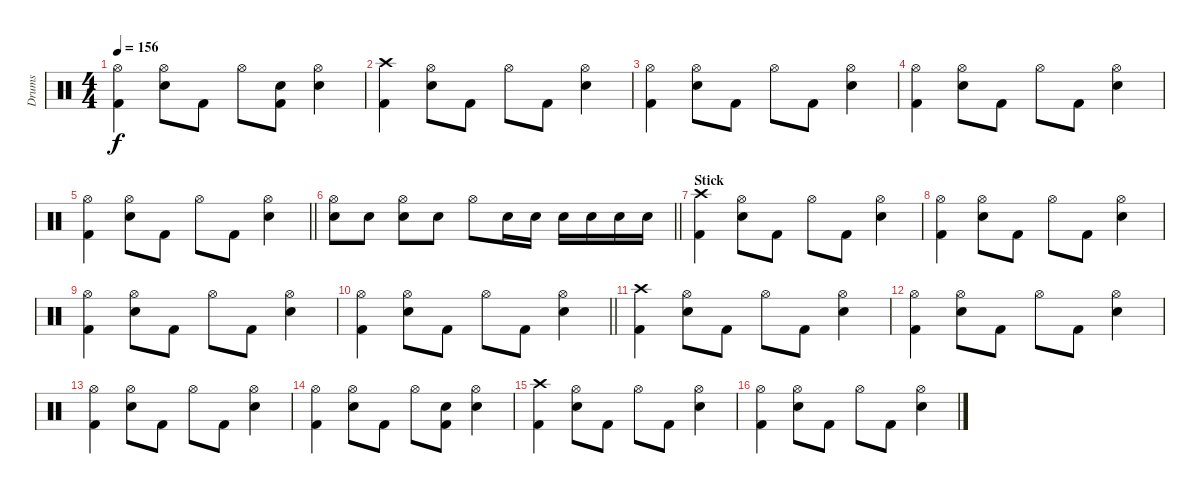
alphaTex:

\track ("Drums" "Drums") {instrument percussion}
\staff {score}
\articulation defaults
\ts (4 4)
\tempo 156
\clef neutral
\ks c
("Hi-Hat (open)" "Kick (hit) 2").4{dy f} ("Hi-Hat (open)" "Electric Snare (hit)").8 "Kick (hit) 2".8 "Hi-Hat (open)".8 ("Electric Snare (hit)" "Kick (hit) 2").8 ("Hi-Hat (open)" "Electric Snare (hit)").4 |
("Crash high (hit)" "Kick (hit) 2").4 ("Hi-Hat (open)" "Electric Snare (hit)").8 "Kick (hit) 2".8 "Hi-Hat (open)".8 "Kick (hit) 2".8 ("Hi-Hat (open)" "Electric Snare (hit)").4 |
("Hi-Hat (open)" "Kick (hit) 2").4 ("Hi-Hat (open)" "Electric Snare (hit)").8 "Kick (hit) 2".8 "Hi-Hat (open)".8 "Kick (hit) 2".8 ("Hi-Hat (open)" "Electric Snare (hit)").4 |
("Hi-Hat (open)" "Kick (hit) 2").4 ("Hi-Hat (open)" "Electric Snare (hit)").8 "Kick (hit) 2".8 "Hi-Hat (open)".8 "Kick (hit) 2".8 ("Hi-Hat (open)" "Electric Snare (hit)").4 |
\barLineRight lightlight
("Hi-Hat (open)" "Kick (hit) 2").4 ("Hi-Hat (open)" "Electric Snare (hit)").8 "Kick (hit) 2".8 "Hi-Hat (open)".8 "Kick (hit) 2".8 ("Hi-Hat (open)" "Electric Snare (hit)").4 |
\barLineRight lightlight
("Hi-Hat (open)" "Electric Snare (hit)").8 "Electric Snare (hit)".8 ("Hi-Hat (open)" "Electric Snare (hit)").8 "Electric Snare (hit)".8 "Hi-Hat (open)".8 "Electric Snare (hit)".16 "Electric Snare (hit)".16 "Electric Snare (hit)".16 "Electric Snare (hit)".16 "Electric Snare (hit)".16 "Electric Snare (hit)".16 |
\section ("" "Stick")
("Crash high (hit)" "Kick (hit) 2").4 ("Hi-Hat (open)" "Electric Snare (hit)").8 "Kick (hit) 2".8 "Hi-Hat (open)".8 "Kick (hit) 2".8 ("Hi-Hat (open)" "Electric Snare (hit)").4 |
("Hi-Hat (open)" "Kick (hit) 2").4 ("Hi-Hat (open)" "Electric Snare (hit)").8 "Kick (hit) 2".8 "Hi-Hat (open)".8 "Kick (hit) 2".8 ("Hi-Hat (open)" "Electric Snare (hit)").4 |
("Hi-Hat (open)" "Kick (hit) 2").4 ("Hi-Hat (open)" "Electric Snare (hit)").8 "Kick (hit) 2".8 "Hi-Hat (open)".8 "Kick (hit) 2".8 ("Hi-Hat (open)" "Electric Snare (hit)").4 |
\barLineRight lightlight
("Hi-Hat (open)" "Kick (hit) 2").4 ("Hi-Hat (open)" "Electric Snare (hit)").8 "Kick (hit) 2".8 "Hi-Hat (open)".8 "Kick (hit) 2".8 ("Hi-Hat (open)" "Electric Snare (hit)").4 |
("Crash high (hit)" "Kick (hit) 2").4 ("Hi-Hat (open)" "Electric Snare (hit)").8 "Kick (hit) 2".8 "Hi-Hat (open)".8 "Kick (hit) 2".8 ("Hi-Hat (open)" "Electric Snare (hit)").4 |
("Hi-Hat (open)" "Kick (hit) 2").4 ("Hi-Hat (open)" "Electric Snare (hit)").8 "Kick (hit) 2".8 "Hi-Hat (open)".8 "Kick (hit) 2".8 ("Hi-Hat (open)" "Electric Snare (hit)").4 |
("Hi-Hat (open)" "Kick (hit) 2").4 ("Hi-Hat (open)" "Electric Snare (hit)").8 "Kick (hit) 2".8 "Hi-Hat (open)".8 "Kick (hit) 2".8 ("Hi-Hat (open)" "Electric Snare (hit)").4 |
("Hi-Hat (open)" "Kick (hit) 2").4 ("Hi-Hat (open)" "Electric Snare (hit)").8 "Kick (hit) 2".8 "Hi-Hat (open)".8 ("Electric Snare (hit)" "Kick (hit) 2").8 ("Hi-Hat (open)" "Electric Snare (hit)").4 |
("Crash high (hit)" "Kick (hit) 2").4 ("Hi-Hat (open)" "Electric Snare (hit)").8 "Kick (hit) 2".8 "Hi-Hat (open)".8 "Kick (hit) 2".8 ("Hi-Hat (open)" "Electric Snare (hit)").4 |
("Hi-Hat (open)" "Kick (hit) 2").4 ("Hi-Hat (open)" "Electric Snare (hit)").8 "Kick (hit) 2".8 "Hi-Hat (open)".8 "Kick (hit) 2".8 ("Hi-Hat (open)" "Electric Snare (hit)").4
